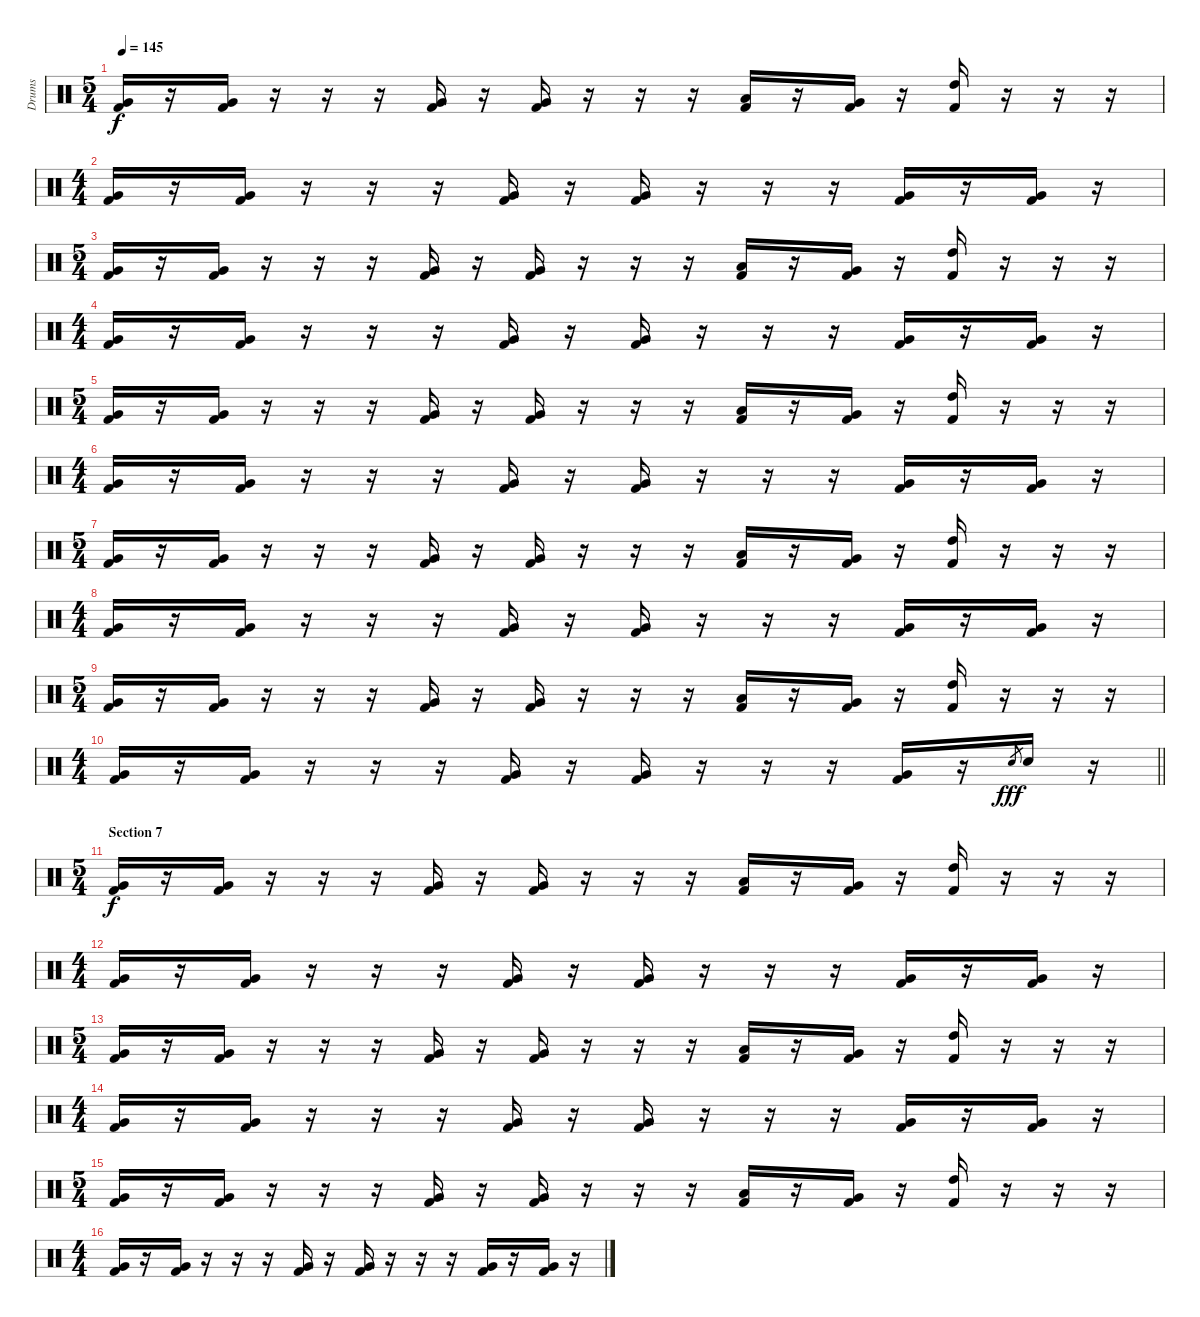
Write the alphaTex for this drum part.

\track ("Drums" "Drums") {instrument percussion}
\staff {score}
\articulation defaults
\ts (5 4)
\tempo 145
\clef neutral
\ks c
("Very Low Tom (hit)" "Kick (hit) 2").16{dy f} r.16 ("Very Low Tom (hit)" "Kick (hit) 2").16 r.16 r.16 r.16 ("Very Low Tom (hit)" "Kick (hit) 2").16 r.16 ("Very Low Tom (hit)" "Kick (hit) 2").16 r.16 r.16 r.16 ("Low Tom (hit)" "Kick (hit) 2").16 r.16 ("Very Low Tom (hit)" "Kick (hit) 2").16 r.16 ("High Tom (hit)" "Kick (hit) 2").16 r.16 r.16 r.16 |
\ts (4 4)
("Very Low Tom (hit)" "Kick (hit) 2").16 r.16 ("Very Low Tom (hit)" "Kick (hit) 2").16 r.16 r.16 r.16 ("Very Low Tom (hit)" "Kick (hit) 2").16 r.16 ("Very Low Tom (hit)" "Kick (hit) 2").16 r.16 r.16 r.16 ("Very Low Tom (hit)" "Kick (hit) 2").16 r.16 ("Very Low Tom (hit)" "Kick (hit) 2").16 r.16 |
\ts (5 4)
("Very Low Tom (hit)" "Kick (hit) 2").16 r.16 ("Very Low Tom (hit)" "Kick (hit) 2").16 r.16 r.16 r.16 ("Very Low Tom (hit)" "Kick (hit) 2").16 r.16 ("Very Low Tom (hit)" "Kick (hit) 2").16 r.16 r.16 r.16 ("Low Tom (hit)" "Kick (hit) 2").16 r.16 ("Very Low Tom (hit)" "Kick (hit) 2").16 r.16 ("High Tom (hit)" "Kick (hit) 2").16 r.16 r.16 r.16 |
\ts (4 4)
("Very Low Tom (hit)" "Kick (hit) 2").16 r.16 ("Very Low Tom (hit)" "Kick (hit) 2").16 r.16 r.16 r.16 ("Very Low Tom (hit)" "Kick (hit) 2").16 r.16 ("Very Low Tom (hit)" "Kick (hit) 2").16 r.16 r.16 r.16 ("Very Low Tom (hit)" "Kick (hit) 2").16 r.16 ("Very Low Tom (hit)" "Kick (hit) 2").16 r.16 |
\ts (5 4)
("Very Low Tom (hit)" "Kick (hit) 2").16 r.16 ("Very Low Tom (hit)" "Kick (hit) 2").16 r.16 r.16 r.16 ("Very Low Tom (hit)" "Kick (hit) 2").16 r.16 ("Very Low Tom (hit)" "Kick (hit) 2").16 r.16 r.16 r.16 ("Low Tom (hit)" "Kick (hit) 2").16 r.16 ("Very Low Tom (hit)" "Kick (hit) 2").16 r.16 ("High Tom (hit)" "Kick (hit) 2").16 r.16 r.16 r.16 |
\ts (4 4)
("Very Low Tom (hit)" "Kick (hit) 2").16 r.16 ("Very Low Tom (hit)" "Kick (hit) 2").16 r.16 r.16 r.16 ("Very Low Tom (hit)" "Kick (hit) 2").16 r.16 ("Very Low Tom (hit)" "Kick (hit) 2").16 r.16 r.16 r.16 ("Very Low Tom (hit)" "Kick (hit) 2").16 r.16 ("Very Low Tom (hit)" "Kick (hit) 2").16 r.16 |
\ts (5 4)
("Very Low Tom (hit)" "Kick (hit) 2").16 r.16 ("Very Low Tom (hit)" "Kick (hit) 2").16 r.16 r.16 r.16 ("Very Low Tom (hit)" "Kick (hit) 2").16 r.16 ("Very Low Tom (hit)" "Kick (hit) 2").16 r.16 r.16 r.16 ("Low Tom (hit)" "Kick (hit) 2").16 r.16 ("Very Low Tom (hit)" "Kick (hit) 2").16 r.16 ("High Tom (hit)" "Kick (hit) 2").16 r.16 r.16 r.16 |
\ts (4 4)
("Very Low Tom (hit)" "Kick (hit) 2").16 r.16 ("Very Low Tom (hit)" "Kick (hit) 2").16 r.16 r.16 r.16 ("Very Low Tom (hit)" "Kick (hit) 2").16 r.16 ("Very Low Tom (hit)" "Kick (hit) 2").16 r.16 r.16 r.16 ("Very Low Tom (hit)" "Kick (hit) 2").16 r.16 ("Very Low Tom (hit)" "Kick (hit) 2").16 r.16 |
\ts (5 4)
("Very Low Tom (hit)" "Kick (hit) 2").16 r.16 ("Very Low Tom (hit)" "Kick (hit) 2").16 r.16 r.16 r.16 ("Very Low Tom (hit)" "Kick (hit) 2").16 r.16 ("Very Low Tom (hit)" "Kick (hit) 2").16 r.16 r.16 r.16 ("Low Tom (hit)" "Kick (hit) 2").16 r.16 ("Very Low Tom (hit)" "Kick (hit) 2").16 r.16 ("High Tom (hit)" "Kick (hit) 2").16 r.16 r.16 r.16 |
\ts (4 4)
\barLineRight lightlight
("Very Low Tom (hit)" "Kick (hit) 2").16 r.16 ("Very Low Tom (hit)" "Kick (hit) 2").16 r.16 r.16 r.16 ("Very Low Tom (hit)" "Kick (hit) 2").16 r.16 ("Very Low Tom (hit)" "Kick (hit) 2").16 r.16 r.16 r.16 ("Very Low Tom (hit)" "Kick (hit) 2").16 r.16 "Electric Snare (hit)".8{gr dy fff} "Electric Snare (hit)".16 r.16 |
\ts (5 4)
\section ("" "Section 7")
("Very Low Tom (hit)" "Kick (hit) 2").16{dy f} r.16 ("Very Low Tom (hit)" "Kick (hit) 2").16 r.16 r.16 r.16 ("Very Low Tom (hit)" "Kick (hit) 2").16 r.16 ("Very Low Tom (hit)" "Kick (hit) 2").16 r.16 r.16 r.16 ("Low Tom (hit)" "Kick (hit) 2").16 r.16 ("Very Low Tom (hit)" "Kick (hit) 2").16 r.16 ("High Tom (hit)" "Kick (hit) 2").16 r.16 r.16 r.16 |
\ts (4 4)
("Very Low Tom (hit)" "Kick (hit) 2").16 r.16 ("Very Low Tom (hit)" "Kick (hit) 2").16 r.16 r.16 r.16 ("Very Low Tom (hit)" "Kick (hit) 2").16 r.16 ("Very Low Tom (hit)" "Kick (hit) 2").16 r.16 r.16 r.16 ("Very Low Tom (hit)" "Kick (hit) 2").16 r.16 ("Very Low Tom (hit)" "Kick (hit) 2").16 r.16 |
\ts (5 4)
("Very Low Tom (hit)" "Kick (hit) 2").16 r.16 ("Very Low Tom (hit)" "Kick (hit) 2").16 r.16 r.16 r.16 ("Very Low Tom (hit)" "Kick (hit) 2").16 r.16 ("Very Low Tom (hit)" "Kick (hit) 2").16 r.16 r.16 r.16 ("Low Tom (hit)" "Kick (hit) 2").16 r.16 ("Very Low Tom (hit)" "Kick (hit) 2").16 r.16 ("High Tom (hit)" "Kick (hit) 2").16 r.16 r.16 r.16 |
\ts (4 4)
("Very Low Tom (hit)" "Kick (hit) 2").16 r.16 ("Very Low Tom (hit)" "Kick (hit) 2").16 r.16 r.16 r.16 ("Very Low Tom (hit)" "Kick (hit) 2").16 r.16 ("Very Low Tom (hit)" "Kick (hit) 2").16 r.16 r.16 r.16 ("Very Low Tom (hit)" "Kick (hit) 2").16 r.16 ("Very Low Tom (hit)" "Kick (hit) 2").16 r.16 |
\ts (5 4)
("Very Low Tom (hit)" "Kick (hit) 2").16 r.16 ("Very Low Tom (hit)" "Kick (hit) 2").16 r.16 r.16 r.16 ("Very Low Tom (hit)" "Kick (hit) 2").16 r.16 ("Very Low Tom (hit)" "Kick (hit) 2").16 r.16 r.16 r.16 ("Low Tom (hit)" "Kick (hit) 2").16 r.16 ("Very Low Tom (hit)" "Kick (hit) 2").16 r.16 ("High Tom (hit)" "Kick (hit) 2").16 r.16 r.16 r.16 |
\ts (4 4)
("Very Low Tom (hit)" "Kick (hit) 2").16 r.16 ("Very Low Tom (hit)" "Kick (hit) 2").16 r.16 r.16 r.16 ("Very Low Tom (hit)" "Kick (hit) 2").16 r.16 ("Very Low Tom (hit)" "Kick (hit) 2").16 r.16 r.16 r.16 ("Very Low Tom (hit)" "Kick (hit) 2").16 r.16 ("Very Low Tom (hit)" "Kick (hit) 2").16 r.16
